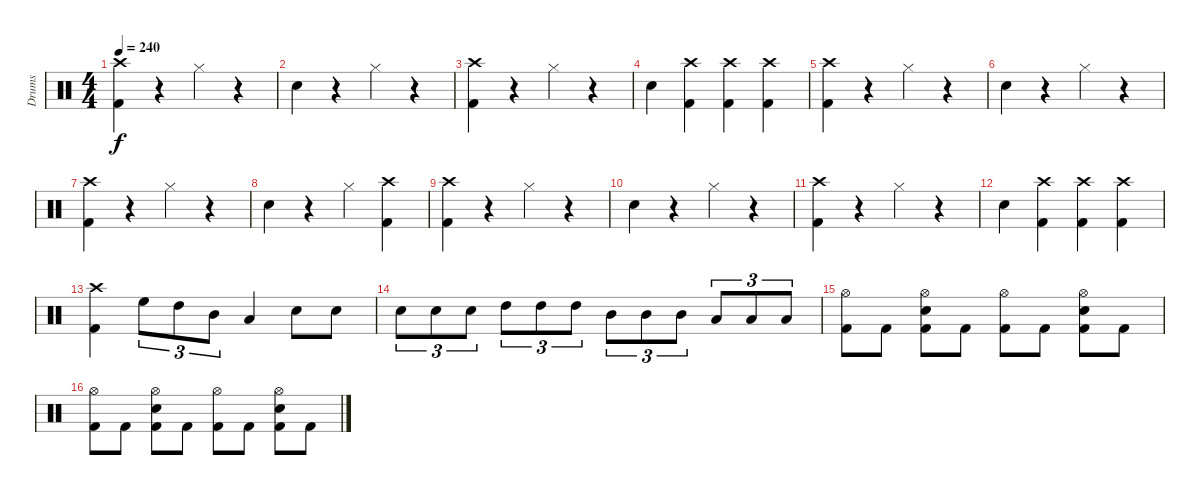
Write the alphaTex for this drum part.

\track ("Drums" "Drums") {instrument percussion}
\staff {score}
\articulation defaults
\ts (4 4)
\tempo 240
\clef neutral
\ks c
("Crash high (hit)" "Kick (hit) 2").4{dy f} r.4 "Hi-Hat (closed)".4 r.4 |
"Snare (hit) 2".4 r.4 "Hi-Hat (closed)".4 r.4 |
("Crash high (hit)" "Kick (hit) 2").4 r.4 "Hi-Hat (closed)".4 r.4 |
"Snare (hit) 2".4 ("Crash high (hit)" "Kick (hit) 2").4 ("Crash high (hit)" "Kick (hit) 2").4 ("Crash high (hit)" "Kick (hit) 2").4 |
("Crash high (hit)" "Kick (hit) 2").4 r.4 "Hi-Hat (closed)".4 r.4 |
"Snare (hit) 2".4 r.4 "Hi-Hat (closed)".4 r.4 |
("Crash high (hit)" "Kick (hit) 2").4 r.4 "Hi-Hat (closed)".4 r.4 |
"Snare (hit) 2".4 r.4 "Hi-Hat (closed)".4 ("Crash high (hit)" "Kick (hit) 2").4 |
("Crash high (hit)" "Kick (hit) 2").4 r.4 "Hi-Hat (closed)".4 r.4 |
"Snare (hit) 2".4 r.4 "Hi-Hat (closed)".4 r.4 |
("Crash high (hit)" "Kick (hit) 2").4 r.4 "Hi-Hat (closed)".4 r.4 |
"Snare (hit) 2".4 ("Crash high (hit)" "Kick (hit) 2").4 ("Crash high (hit)" "Kick (hit) 2").4 ("Crash high (hit)" "Kick (hit) 2").4 |
("Crash high (hit)" "Kick (hit) 2").4 "High Floor Tom (hit)".8{tu (3 2)} "High Tom (hit)".8{tu (3 2)} "Mid Tom (hit)".8{tu (3 2)} "Low Tom (hit)".4 "Snare (hit) 2".8 "Snare (hit) 2".8 |
"Snare (hit) 2".8{tu (3 2)} "Snare (hit) 2".8{tu (3 2)} "Snare (hit) 2".8{tu (3 2)} "High Tom (hit)".8{tu (3 2)} "High Tom (hit)".8{tu (3 2)} "High Tom (hit)".8{tu (3 2)} "Mid Tom (hit)".8{tu (3 2)} "Mid Tom (hit)".8{tu (3 2)} "Mid Tom (hit)".8{tu (3 2)} "Low Tom (hit)".8{tu (3 2)} "Low Tom (hit)".8{tu (3 2)} "Low Tom (hit)".8{tu (3 2)} |
("Hi-Hat (open)" "Kick (hit) 2").8 "Kick (hit) 2".8 ("Hi-Hat (open)" "Snare (hit) 2" "Kick (hit) 2").8 "Kick (hit) 2".8 ("Hi-Hat (open)" "Kick (hit) 2").8 "Kick (hit) 2".8 ("Hi-Hat (open)" "Snare (hit) 2" "Kick (hit) 2").8 "Kick (hit) 2".8 |
("Hi-Hat (open)" "Kick (hit) 2").8 "Kick (hit) 2".8 ("Hi-Hat (open)" "Snare (hit) 2" "Kick (hit) 2").8 "Kick (hit) 2".8 ("Hi-Hat (open)" "Kick (hit) 2").8 "Kick (hit) 2".8 ("Hi-Hat (open)" "Snare (hit) 2" "Kick (hit) 2").8 "Kick (hit) 2".8
